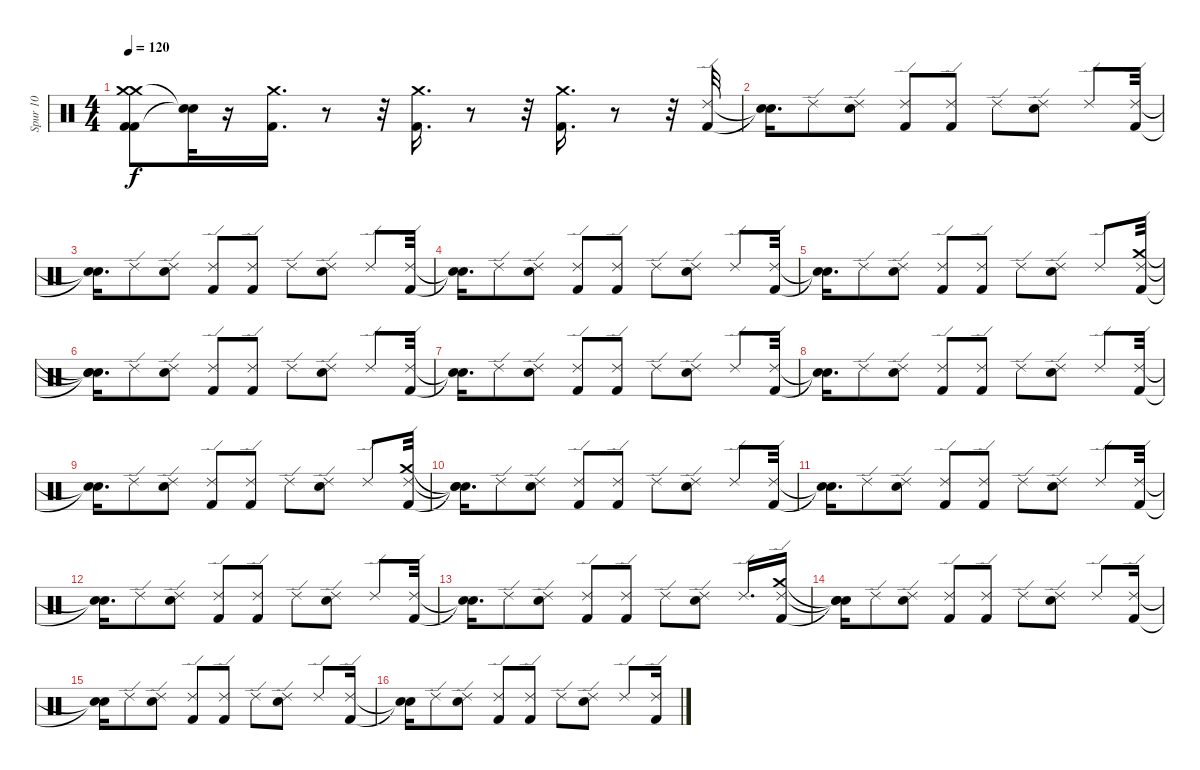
\track ("Spur 10" "Spur 10") {instrument percussion}
\staff {score}
\articulation defaults
\ts (4 4)
\tempo 120
\clef neutral
\ks c
("Kick (hit) 2" "Crash medium (hit)" "Kick (hit) 2" "Crash medium (hit)").8{dy f} ("Snare (hit)"{t} "Snare (hit)"{t}).32 r.16 ("Kick (hit) 2" "Crash medium (hit)").16{d} r.8 r.32 ("Kick (hit) 2" "Crash medium (hit)").16{d} r.8 r.32 ("Kick (hit) 2" "Crash medium (hit)").16{d} r.8 r.32 ("Kick (hit) 2" "Ride (edge) 2").32 |
("Snare (hit)"{t} "Snare (hit)"{t}).16{d} "Ride (edge) 2".8 ("Electric Snare (hit)" "Ride (edge) 2").8 ("Kick (hit) 2" "Ride (edge) 2").8 ("Kick (hit) 2" "Ride (edge) 2").8 "Ride (edge) 2".8 ("Electric Snare (hit)" "Ride (edge) 2").8 "Ride (edge) 2".8 ("Kick (hit) 2" "Ride (edge) 2").32 |
("Snare (hit)"{t} "Snare (hit)"{t}).16{d} "Ride (edge) 2".8 ("Electric Snare (hit)" "Ride (edge) 2").8 ("Kick (hit) 2" "Ride (edge) 2").8 ("Kick (hit) 2" "Ride (edge) 2").8 "Ride (edge) 2".8 ("Electric Snare (hit)" "Ride (edge) 2").8 "Ride (edge) 2".8 ("Kick (hit) 2" "Ride (edge) 2").32 |
("Snare (hit)"{t} "Snare (hit)"{t}).16{d} "Ride (edge) 2".8 ("Electric Snare (hit)" "Ride (edge) 2").8 ("Kick (hit) 2" "Ride (edge) 2").8 ("Kick (hit) 2" "Ride (edge) 2").8 "Ride (edge) 2".8 ("Electric Snare (hit)" "Ride (edge) 2").8 "Ride (edge) 2".8 ("Kick (hit) 2" "Ride (edge) 2").32 |
("Snare (hit)"{t} "Snare (hit)"{t}).16{d} "Ride (edge) 2".8 ("Electric Snare (hit)" "Ride (edge) 2").8 ("Kick (hit) 2" "Ride (edge) 2").8 ("Kick (hit) 2" "Ride (edge) 2").8 "Ride (edge) 2".8 ("Electric Snare (hit)" "Ride (edge) 2").8 "Ride (edge) 2".8 ("Kick (hit) 2" "Ride (edge) 2" "Crash medium (hit)").32 |
("Snare (hit)"{t} "Snare (hit)"{t} "Snare (hit)"{t}).16{d} "Ride (edge) 2".8 ("Electric Snare (hit)" "Ride (edge) 2").8 ("Kick (hit) 2" "Ride (edge) 2").8 ("Kick (hit) 2" "Ride (edge) 2").8 "Ride (edge) 2".8 ("Electric Snare (hit)" "Ride (edge) 2").8 "Ride (edge) 2".8 ("Kick (hit) 2" "Ride (edge) 2").32 |
("Snare (hit)"{t} "Snare (hit)"{t}).16{d} "Ride (edge) 2".8 ("Electric Snare (hit)" "Ride (edge) 2").8 ("Kick (hit) 2" "Ride (edge) 2").8 ("Kick (hit) 2" "Ride (edge) 2").8 "Ride (edge) 2".8 ("Electric Snare (hit)" "Ride (edge) 2").8 "Ride (edge) 2".8 ("Kick (hit) 2" "Ride (edge) 2").32 |
("Snare (hit)"{t} "Snare (hit)"{t}).16{d} "Ride (edge) 2".8 ("Electric Snare (hit)" "Ride (edge) 2").8 ("Kick (hit) 2" "Ride (edge) 2").8 ("Kick (hit) 2" "Ride (edge) 2").8 "Ride (edge) 2".8 ("Electric Snare (hit)" "Ride (edge) 2").8 "Ride (edge) 2".8 ("Kick (hit) 2" "Ride (edge) 2").32 |
("Snare (hit)"{t} "Snare (hit)"{t}).16{d} "Ride (edge) 2".8 ("Electric Snare (hit)" "Ride (edge) 2").8 ("Kick (hit) 2" "Ride (edge) 2").8 ("Kick (hit) 2" "Ride (edge) 2").8 "Ride (edge) 2".8 ("Electric Snare (hit)" "Ride (edge) 2").8 "Ride (edge) 2".8 ("Kick (hit) 2" "Ride (edge) 2" "Crash medium (hit)").32 |
("Snare (hit)"{t} "Snare (hit)"{t} "Snare (hit)"{t}).16{d} "Ride (edge) 2".8 ("Electric Snare (hit)" "Ride (edge) 2").8 ("Kick (hit) 2" "Ride (edge) 2").8 ("Kick (hit) 2" "Ride (edge) 2").8 "Ride (edge) 2".8 ("Electric Snare (hit)" "Ride (edge) 2").8 "Ride (edge) 2".8 ("Kick (hit) 2" "Ride (edge) 2").32 |
("Snare (hit)"{t} "Snare (hit)"{t}).16{d} "Ride (edge) 2".8 ("Electric Snare (hit)" "Ride (edge) 2").8 ("Kick (hit) 2" "Ride (edge) 2").8 ("Kick (hit) 2" "Ride (edge) 2").8 "Ride (edge) 2".8 ("Electric Snare (hit)" "Ride (edge) 2").8 "Ride (edge) 2".8 ("Kick (hit) 2" "Ride (edge) 2").32 |
("Snare (hit)"{t} "Snare (hit)"{t}).16{d} "Ride (edge) 2".8 ("Electric Snare (hit)" "Ride (edge) 2").8 ("Kick (hit) 2" "Ride (edge) 2").8 ("Kick (hit) 2" "Ride (edge) 2").8 "Ride (edge) 2".8 ("Electric Snare (hit)" "Ride (edge) 2").8 "Ride (edge) 2".8 ("Kick (hit) 2" "Ride (edge) 2").32 |
("Snare (hit)"{t} "Snare (hit)"{t}).16{d} "Ride (edge) 2".8 ("Electric Snare (hit)" "Ride (edge) 2").8 ("Kick (hit) 2" "Ride (edge) 2").8 ("Kick (hit) 2" "Ride (edge) 2").8 "Ride (edge) 2".8 ("Electric Snare (hit)" "Ride (edge) 2").8 "Ride (edge) 2".16{d} ("Kick (hit) 2" "Ride (edge) 2" "Crash medium (hit)").16 |
("Snare (hit)"{t} "Snare (hit)"{t} "Snare (hit)"{t}).16 "Ride (edge) 2".8 ("Electric Snare (hit)" "Ride (edge) 2").8 ("Kick (hit) 2" "Ride (edge) 2").8 ("Kick (hit) 2" "Ride (edge) 2").8 "Ride (edge) 2".8 ("Electric Snare (hit)" "Ride (edge) 2").8 "Ride (edge) 2".8 ("Kick (hit) 2" "Ride (edge) 2").16 |
("Snare (hit)"{t} "Snare (hit)"{t}).16 "Ride (edge) 2".8 ("Electric Snare (hit)" "Ride (edge) 2").8 ("Kick (hit) 2" "Ride (edge) 2").8 ("Kick (hit) 2" "Ride (edge) 2").8 "Ride (edge) 2".8 ("Electric Snare (hit)" "Ride (edge) 2").8 "Ride (edge) 2".8 ("Kick (hit) 2" "Ride (edge) 2").16 |
("Snare (hit)"{t} "Snare (hit)"{t}).16 "Ride (edge) 2".8 ("Electric Snare (hit)" "Ride (edge) 2").8 ("Kick (hit) 2" "Ride (edge) 2").8 ("Kick (hit) 2" "Ride (edge) 2").8 "Ride (edge) 2".8 ("Electric Snare (hit)" "Ride (edge) 2").8 "Ride (edge) 2".8 ("Kick (hit) 2" "Ride (edge) 2").16
